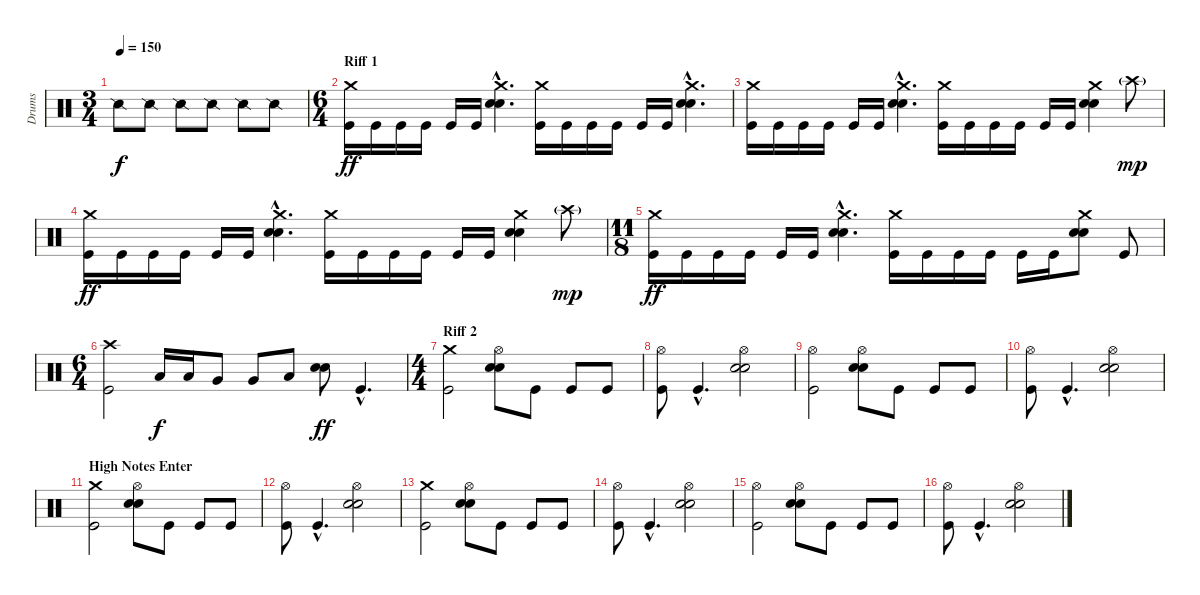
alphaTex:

\track ("Drums" "Drums") {instrument percussion}
\staff {score}
\articulation defaults
\ts (3 4)
\tempo 150
\clef neutral
\ks c "Snare (side stick) 2".8{dy f} "Snare (side stick) 2".8 "Snare (side stick) 2".8 "Snare (side stick) 2".8 "Snare (side stick) 2".8 "Snare (side stick) 2".8
|
\ts (6 4)
\section ("" "Riff 1")
("Kick (hit)" "Crash medium (hit)").16{dy ff} "Kick (hit)".16 "Kick (hit)".16 "Kick (hit)".16 "Kick (hit)".16 "Kick (hit)".16 ("Electric Snare (hit)"{hac} "Electric Snare (hit)"{hac} "Crash medium (hit)"{hac}).4{d} ("Kick (hit)" "Crash medium (hit)").16 "Kick (hit)".16 "Kick (hit)".16 "Kick (hit)".16 "Kick (hit)".16 "Kick (hit)".16 ("Electric Snare (hit)"{hac} "Electric Snare (hit)"{hac} "Crash medium (hit)"{hac}).4{d} |
("Kick (hit)" "Crash medium (hit)").16 "Kick (hit)".16 "Kick (hit)".16 "Kick (hit)".16 "Kick (hit)".16 "Kick (hit)".16 ("Electric Snare (hit)"{hac} "Electric Snare (hit)"{hac} "Crash medium (hit)"{hac}).4{d} ("Kick (hit)" "Crash medium (hit)").16 "Kick (hit)".16 "Kick (hit)".16 "Kick (hit)".16 "Kick (hit)".16 "Kick (hit)".16 ("Electric Snare (hit)" "Electric Snare (hit)" "Crash medium (hit)").4 "Crash high (hit)"{g}.8{dy mp} |
("Kick (hit)" "Crash medium (hit)").16{dy ff} "Kick (hit)".16 "Kick (hit)".16 "Kick (hit)".16 "Kick (hit)".16 "Kick (hit)".16 ("Electric Snare (hit)"{hac} "Electric Snare (hit)"{hac} "Crash medium (hit)"{hac}).4{d} ("Kick (hit)" "Crash medium (hit)").16 "Kick (hit)".16 "Kick (hit)".16 "Kick (hit)".16 "Kick (hit)".16 "Kick (hit)".16 ("Electric Snare (hit)" "Electric Snare (hit)" "Crash medium (hit)").4 "Crash high (hit)"{g}.8{dy mp} |
\ts (11 8)
("Kick (hit)" "Crash medium (hit)").16{dy ff} "Kick (hit)".16 "Kick (hit)".16 "Kick (hit)".16 "Kick (hit)".16 "Kick (hit)".16 ("Electric Snare (hit)"{hac} "Electric Snare (hit)"{hac} "Crash medium (hit)"{hac}).4{d} ("Kick (hit)" "Crash medium (hit)").16 "Kick (hit)".16 "Kick (hit)".16 "Kick (hit)".16 "Kick (hit)".16 "Kick (hit)".16 ("Electric Snare (hit)" "Electric Snare (hit)" "Crash medium (hit)").8 "Kick (hit)".8 |
\ts (6 4)
("Kick (hit)" "Crash high (hit)").2 "Low Tom (hit)".16{dy f} "Low Tom (hit)".16 "Very Low Tom (hit)".8 "Very Low Tom (hit)".8 "Low Floor Tom (hit)".8 ("Electric Snare (hit)" "Electric Snare (hit)").8{dy ff} "Kick (hit)"{hac}.4{d} |
\ts (4 4)
\section ("" "Riff 2")
("Kick (hit)" "Crash medium (hit)").2 ("Electric Snare (hit)" "Electric Snare (hit)" "Hi-Hat (open)").8 "Kick (hit)".8 "Kick (hit)".8 "Kick (hit)".8 |
("Kick (hit)" "Hi-Hat (open)").8 "Kick (hit)"{hac}.4{d} ("Electric Snare (hit)" "Electric Snare (hit)" "Hi-Hat (open)").2 |
("Kick (hit)" "Hi-Hat (open)").2 ("Electric Snare (hit)" "Electric Snare (hit)" "Hi-Hat (open)").8 "Kick (hit)".8 "Kick (hit)".8 "Kick (hit)".8 |
("Kick (hit)" "Hi-Hat (open)").8 "Kick (hit)"{hac}.4{d} ("Electric Snare (hit)" "Electric Snare (hit)" "Hi-Hat (open)").2 |
\section ("" "High Notes Enter")
("Kick (hit)" "Crash medium (hit)").2 ("Electric Snare (hit)" "Electric Snare (hit)" "Hi-Hat (open)").8 "Kick (hit)".8 "Kick (hit)".8 "Kick (hit)".8 |
("Kick (hit)" "Hi-Hat (open)").8 "Kick (hit)"{hac}.4{d} ("Electric Snare (hit)" "Electric Snare (hit)" "Hi-Hat (open)").2 |
("Kick (hit)" "Crash medium (hit)").2 ("Electric Snare (hit)" "Electric Snare (hit)" "Hi-Hat (open)").8 "Kick (hit)".8 "Kick (hit)".8 "Kick (hit)".8 |
("Kick (hit)" "Hi-Hat (open)").8 "Kick (hit)"{hac}.4{d} ("Electric Snare (hit)" "Electric Snare (hit)" "Hi-Hat (open)").2 |
("Kick (hit)" "Hi-Hat (open)").2 ("Electric Snare (hit)" "Electric Snare (hit)" "Hi-Hat (open)").8 "Kick (hit)".8 "Kick (hit)".8 "Kick (hit)".8 |
("Kick (hit)" "Hi-Hat (open)").8 "Kick (hit)"{hac}.4{d} ("Electric Snare (hit)" "Electric Snare (hit)" "Hi-Hat (open)").2
